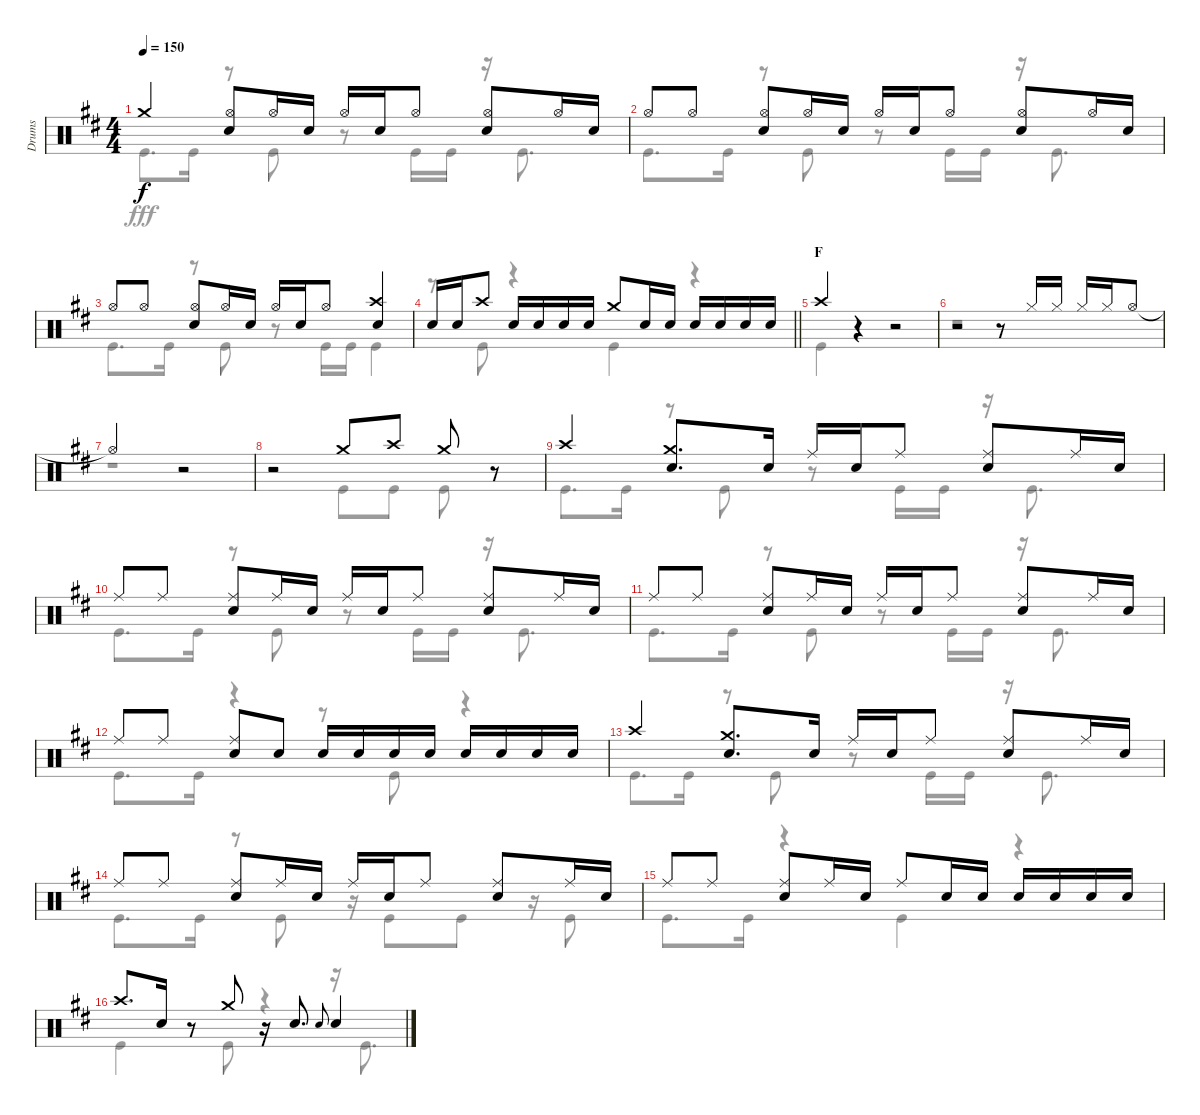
\track ("Drums" "Drums") {instrument percussion}
\staff {score}
\articulation defaults
\voice
\ts (4 4)
\tempo 150
\clef neutral
\ks d "Crash medium (hit)".4{dy f}
("Hi-Hat (open)" "Snare (hit) 2").8 "Hi-Hat (open)".16 "Snare (hit) 2".16 "Hi-Hat (open)".16 "Snare (hit) 2".16 "Hi-Hat (open)".8 ("Hi-Hat (open)" "Snare (hit) 2").8 "Hi-Hat (open)".16 "Snare (hit) 2".16 |
"Hi-Hat (open)".8 "Hi-Hat (open)".8 ("Hi-Hat (open)" "Snare (hit) 2").8 "Hi-Hat (open)".16 "Snare (hit) 2".16 "Hi-Hat (open)".16 "Snare (hit) 2".16 "Hi-Hat (open)".8 ("Hi-Hat (open)" "Snare (hit) 2").8 "Hi-Hat (open)".16 "Snare (hit) 2".16 |
"Hi-Hat (open)".8 "Hi-Hat (open)".8 ("Hi-Hat (open)" "Snare (hit) 2").8 "Hi-Hat (open)".16 "Snare (hit) 2".16 "Hi-Hat (open)".16 "Snare (hit) 2".16 "Hi-Hat (open)".8 ("Crash high (hit)" "Snare (hit) 2").4 |
\barLineRight lightlight "Snare (hit) 2".16 "Snare (hit) 2".16 "Crash high (hit)".8 "Snare (hit) 2".16 "Snare (hit) 2".16 "Snare (hit) 2".16 "Snare (hit) 2".16 "Crash medium (hit)".8 "Snare (hit) 2".16 "Snare (hit) 2".16 "Snare (hit) 2".16 "Snare (hit) 2".16 "Snare (hit) 2".16 "Snare (hit) 2".16
|
\section ("" "F")
"Crash high (hit)".4 r.4 r.2 |
r.2 r.8 "Hi-Hat (closed)".16 "Hi-Hat (closed)".16 "Hi-Hat (closed)".16 "Hi-Hat (closed)".16 "Hi-Hat (open)".8 |
"Hi-Hat (open)"{t}.2 r.2 |
r.2 "Crash medium (hit)".8 "Crash high (hit)".8 "Crash medium (hit)".8 r.8 |
"Crash high (hit)".4 ("Crash medium (hit)" "Snare (hit) 2").8{d} "Snare (hit) 2".16 "Ride (middle)".16 "Snare (hit) 2".16 "Ride (middle)".8 ("Ride (middle)" "Snare (hit) 2").8 "Ride (middle)".16 "Snare (hit) 2".16 |
"Ride (middle)".8 "Ride (middle)".8 ("Ride (middle)" "Snare (hit) 2").8 "Ride (middle)".16 "Snare (hit) 2".16 "Ride (middle)".16 "Snare (hit) 2".16 "Ride (middle)".8 ("Ride (middle)" "Snare (hit) 2").8 "Ride (middle)".16 "Snare (hit) 2".16 |
"Ride (middle)".8 "Ride (middle)".8 ("Ride (middle)" "Snare (hit) 2").8 "Ride (middle)".16 "Snare (hit) 2".16 "Ride (middle)".16 "Snare (hit) 2".16 "Ride (middle)".8 ("Ride (middle)" "Snare (hit) 2").8 "Ride (middle)".16 "Snare (hit) 2".16 |
"Ride (middle)".8 "Ride (middle)".8 ("Ride (middle)" "Snare (hit) 2").8 "Snare (hit) 2".8 "Snare (hit) 2".16 "Snare (hit) 2".16 "Snare (hit) 2".16 "Snare (hit) 2".16 "Snare (hit) 2".16 "Snare (hit) 2".16 "Snare (hit) 2".16 "Snare (hit) 2".16 |
"Crash high (hit)".4 ("Crash medium (hit)" "Snare (hit) 2").8{d} "Snare (hit) 2".16 "Ride (middle)".16 "Snare (hit) 2".16 "Ride (middle)".8 ("Ride (middle)" "Snare (hit) 2").8 "Ride (middle)".16 "Snare (hit) 2".16 |
"Ride (middle)".8 "Ride (middle)".8 ("Ride (middle)" "Snare (hit) 2").8 "Ride (middle)".16 "Snare (hit) 2".16 "Ride (middle)".16 "Snare (hit) 2".16 "Ride (middle)".8 ("Ride (middle)" "Snare (hit) 2").8 "Ride (middle)".16 "Snare (hit) 2".16 |
"Ride (middle)".8 "Ride (middle)".8 ("Ride (middle)" "Snare (hit) 2").8 "Ride (middle)".16 "Snare (hit) 2".16 "Ride (middle)".8 "Snare (hit) 2".16 "Snare (hit) 2".16 "Snare (hit) 2".16 "Snare (hit) 2".16 "Snare (hit) 2".16 "Snare (hit) 2".16 |
"Crash high (hit)".8{d} "Snare (hit) 2".16 r.8 "Crash medium (hit)".8 r.16 "Snare (hit) 2".8{d} "Snare (hit) 2".8{gr onbeat} "Snare (hit) 2".4
\voice
\clef neutral
\ottava regular
\simile none
\ks d "Kick (hit)".8{d dy fff} "Kick (hit)".16
r.8 "Kick (hit)".8 r.8 "Kick (hit)".16 "Kick (hit)".16 r.16 "Kick (hit)".8{d} |
"Kick (hit)".8{d} "Kick (hit)".16 r.8 "Kick (hit)".8 r.8 "Kick (hit)".16 "Kick (hit)".16 r.16 "Kick (hit)".8{d} |
"Kick (hit)".8{d} "Kick (hit)".16 r.8 "Kick (hit)".8 r.8 "Kick (hit)".16 "Kick (hit)".16 "Kick (hit)".4 |
\barLineRight lightlight
r.8 "Kick (hit)".8 r.4 "Kick (hit)".4 r.4 |
"Kick (hit)".4 r.4 r.2 |
r.1 |
r.1 |
r.2 "Kick (hit)".8 "Kick (hit)".8 "Kick (hit)".8 r.8 |
"Kick (hit)".8{d} "Kick (hit)".16 r.8 "Kick (hit)".8 r.8 "Kick (hit)".16 "Kick (hit)".16 r.16 "Kick (hit)".8{d} |
"Kick (hit)".8{d} "Kick (hit)".16 r.8 "Kick (hit)".8 r.8 "Kick (hit)".16 "Kick (hit)".16 r.16 "Kick (hit)".8{d} |
"Kick (hit)".8{d} "Kick (hit)".16 r.8 "Kick (hit)".8 r.8 "Kick (hit)".16 "Kick (hit)".16 r.16 "Kick (hit)".8{d} |
"Kick (hit)".8{d} "Kick (hit)".16 r.4 r.8 "Kick (hit)".8 r.4 |
"Kick (hit)".8{d} "Kick (hit)".16 r.8 "Kick (hit)".8 r.8 "Kick (hit)".16 "Kick (hit)".16 r.16 "Kick (hit)".8{d} |
"Kick (hit)".8{d} "Kick (hit)".16 r.8 "Kick (hit)".8 r.16 "Kick (hit)".8 "Kick (hit)".8 r.16 "Kick (hit)".8 |
"Kick (hit)".8{d} "Kick (hit)".16 r.4 "Kick (hit)".4 r.4 |
"Kick (hit)".4 r.8 "Kick (hit)".8 r.4 r.16 "Kick (hit)".8{d}
